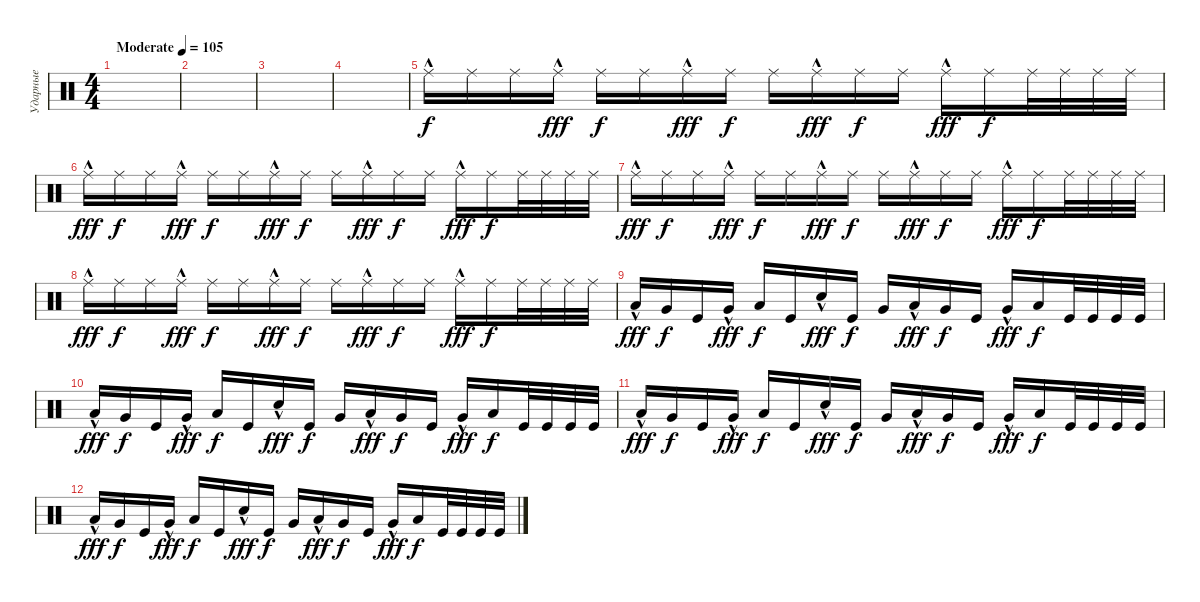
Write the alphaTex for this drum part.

\track ("Ударные" "Ударные") {instrument percussion}
\staff {score}
\articulation defaults
\ts (4 4)
\tempo (105 "Moderate")
\clef neutral
\ks c
|
|
|
|
"Ride (middle)"{hac}.16 "Ride (middle)".16{dy f} "Ride (middle)".16 "Ride (middle)"{hac}.16{dy fff} "Ride (middle)".16{dy f} "Ride (middle)".16 "Ride (middle)"{hac}.16{dy fff} "Ride (middle)".16{dy f} "Ride (middle)".16 "Ride (middle)"{hac}.16{dy fff} "Ride (middle)".16{dy f} "Ride (middle)".16 "Ride (middle)"{hac}.16{dy fff} "Ride (middle)".16{dy f} "Ride (middle)".32 "Ride (middle)".32 "Ride (middle)".32 "Ride (middle)".32 |
"Ride (middle)"{hac}.16{dy fff} "Ride (middle)".16{dy f} "Ride (middle)".16 "Ride (middle)"{hac}.16{dy fff} "Ride (middle)".16{dy f} "Ride (middle)".16 "Ride (middle)"{hac}.16{dy fff} "Ride (middle)".16{dy f} "Ride (middle)".16 "Ride (middle)"{hac}.16{dy fff} "Ride (middle)".16{dy f} "Ride (middle)".16 "Ride (middle)"{hac}.16{dy fff} "Ride (middle)".16{dy f} "Ride (middle)".32 "Ride (middle)".32 "Ride (middle)".32 "Ride (middle)".32 |
"Ride (middle)"{hac}.16{dy fff} "Ride (middle)".16{dy f} "Ride (middle)".16 "Ride (middle)"{hac}.16{dy fff} "Ride (middle)".16{dy f} "Ride (middle)".16 "Ride (middle)"{hac}.16{dy fff} "Ride (middle)".16{dy f} "Ride (middle)".16 "Ride (middle)"{hac}.16{dy fff} "Ride (middle)".16{dy f} "Ride (middle)".16 "Ride (middle)"{hac}.16{dy fff} "Ride (middle)".16{dy f} "Ride (middle)".32 "Ride (middle)".32 "Ride (middle)".32 "Ride (middle)".32 |
"Ride (middle)"{hac}.16{dy fff} "Ride (middle)".16{dy f} "Ride (middle)".16 "Ride (middle)"{hac}.16{dy fff} "Ride (middle)".16{dy f} "Ride (middle)".16 "Ride (middle)"{hac}.16{dy fff} "Ride (middle)".16{dy f} "Ride (middle)".16 "Ride (middle)"{hac}.16{dy fff} "Ride (middle)".16{dy f} "Ride (middle)".16 "Ride (middle)"{hac}.16{dy fff} "Ride (middle)".16{dy f} "Ride (middle)".32 "Ride (middle)".32 "Ride (middle)".32 "Ride (middle)".32 |
"Low Tom (hit)"{hac}.16{dy fff} "Very Low Tom (hit)".16{dy f} "Kick (hit)".16 "Very Low Tom (hit)"{hac}.16{dy fff} "Low Floor Tom (hit)".16{dy f} "Kick (hit)".16 "Snare (hit) 2"{hac}.16{dy fff} "Kick (hit)".16{dy f} "Very Low Tom (hit)".16 "Low Tom (hit)"{hac}.16{dy fff} "Very Low Tom (hit)".16{dy f} "Kick (hit)".16 "Very Low Tom (hit)"{hac}.16{dy fff} "Low Floor Tom (hit)".16{dy f} "Kick (hit)".32 "Kick (hit)".32 "Kick (hit)".32 "Kick (hit)".32 |
"Low Tom (hit)"{hac}.16{dy fff} "Very Low Tom (hit)".16{dy f} "Kick (hit)".16 "Very Low Tom (hit)"{hac}.16{dy fff} "Low Floor Tom (hit)".16{dy f} "Kick (hit)".16 "Snare (hit) 2"{hac}.16{dy fff} "Kick (hit)".16{dy f} "Very Low Tom (hit)".16 "Low Tom (hit)"{hac}.16{dy fff} "Very Low Tom (hit)".16{dy f} "Kick (hit)".16 "Very Low Tom (hit)"{hac}.16{dy fff} "Low Floor Tom (hit)".16{dy f} "Kick (hit)".32 "Kick (hit)".32 "Kick (hit)".32 "Kick (hit)".32 |
"Low Tom (hit)"{hac}.16{dy fff} "Very Low Tom (hit)".16{dy f} "Kick (hit)".16 "Very Low Tom (hit)"{hac}.16{dy fff} "Low Floor Tom (hit)".16{dy f} "Kick (hit)".16 "Snare (hit) 2"{hac}.16{dy fff} "Kick (hit)".16{dy f} "Very Low Tom (hit)".16 "Low Tom (hit)"{hac}.16{dy fff} "Very Low Tom (hit)".16{dy f} "Kick (hit)".16 "Very Low Tom (hit)"{hac}.16{dy fff} "Low Floor Tom (hit)".16{dy f} "Kick (hit)".32 "Kick (hit)".32 "Kick (hit)".32 "Kick (hit)".32 |
"Low Tom (hit)"{hac}.16{dy fff} "Very Low Tom (hit)".16{dy f} "Kick (hit)".16 "Very Low Tom (hit)"{hac}.16{dy fff} "Low Floor Tom (hit)".16{dy f} "Kick (hit)".16 "Snare (hit) 2"{hac}.16{dy fff} "Kick (hit)".16{dy f} "Very Low Tom (hit)".16 "Low Tom (hit)"{hac}.16{dy fff} "Very Low Tom (hit)".16{dy f} "Kick (hit)".16 "Very Low Tom (hit)"{hac}.16{dy fff} "Low Floor Tom (hit)".16{dy f} "Kick (hit)".32 "Kick (hit)".32 "Kick (hit)".32 "Kick (hit)".32
